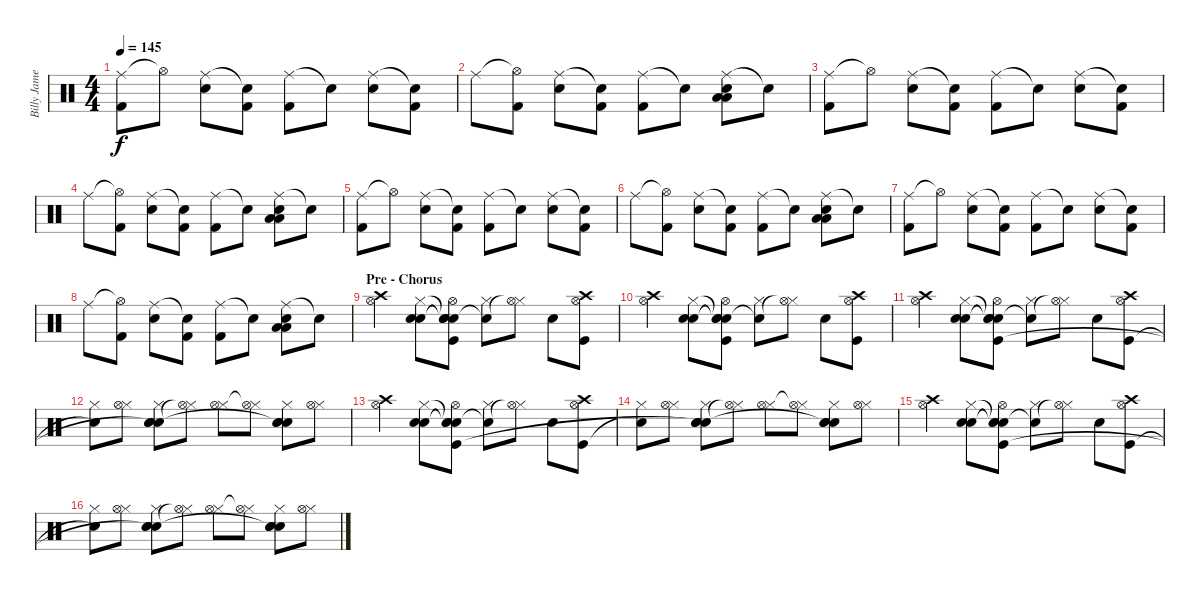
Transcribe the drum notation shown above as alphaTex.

\track ("Billy James (Drums)" "Billy Jame") {instrument percussion}
\staff {score}
\articulation defaults
\ts (4 4)
\tempo 145
\clef neutral
\ks c
("Ride (middle)" "Kick (hit) 2").8{dy f} "Hi-Hat (open)"{t}.8 ("Ride (middle)" "Snare (hit) 2").8 ("Snare (hit)"{t} "Kick (hit) 2").8 ("Ride (middle)" "Kick (hit) 2").8 "Snare (hit)"{t}.8 ("Ride (middle)" "Snare (hit) 2").8 ("Snare (hit)"{t} "Kick (hit) 2").8 |
"Ride (middle)".8 ("Hi-Hat (open)"{t} "Kick (hit) 2").8 ("Ride (middle)" "Snare (hit) 2").8 ("Snare (hit)"{t} "Kick (hit) 2").8 ("Ride (middle)" "Kick (hit) 2").8 "Snare (hit)"{t}.8 ("Ride (middle)" "Low Floor Tom (hit)" "Low Floor Tom (hit)" "Snare (hit) 2").8 "Snare (hit)"{t}.8 |
("Ride (middle)" "Kick (hit) 2").8 "Hi-Hat (open)"{t}.8 ("Ride (middle)" "Snare (hit) 2").8 ("Snare (hit)"{t} "Kick (hit) 2").8 ("Ride (middle)" "Kick (hit) 2").8 "Snare (hit)"{t}.8 ("Ride (middle)" "Snare (hit) 2").8 ("Snare (hit)"{t} "Kick (hit) 2").8 |
"Ride (middle)".8 ("Hi-Hat (open)"{t} "Kick (hit) 2").8 ("Ride (middle)" "Snare (hit) 2").8 ("Snare (hit)"{t} "Kick (hit) 2").8 ("Ride (middle)" "Kick (hit) 2").8 "Snare (hit)"{t}.8 ("Ride (middle)" "Low Floor Tom (hit)" "Low Floor Tom (hit)" "Snare (hit) 2").8 "Snare (hit)"{t}.8 |
("Ride (middle)" "Kick (hit) 2").8 "Hi-Hat (open)"{t}.8 ("Ride (middle)" "Snare (hit) 2").8 ("Snare (hit)"{t} "Kick (hit) 2").8 ("Ride (middle)" "Kick (hit) 2").8 "Snare (hit)"{t}.8 ("Ride (middle)" "Snare (hit) 2").8 ("Snare (hit)"{t} "Kick (hit) 2").8 |
"Ride (middle)".8 ("Hi-Hat (open)"{t} "Kick (hit) 2").8 ("Ride (middle)" "Snare (hit) 2").8 ("Snare (hit)"{t} "Kick (hit) 2").8 ("Ride (middle)" "Kick (hit) 2").8 "Snare (hit)"{t}.8 ("Ride (middle)" "Low Floor Tom (hit)" "Low Floor Tom (hit)" "Snare (hit) 2").8 "Snare (hit)"{t}.8 |
("Ride (middle)" "Kick (hit) 2").8 "Hi-Hat (open)"{t}.8 ("Ride (middle)" "Snare (hit) 2").8 ("Snare (hit)"{t} "Kick (hit) 2").8 ("Ride (middle)" "Kick (hit) 2").8 "Snare (hit)"{t}.8 ("Ride (middle)" "Snare (hit) 2").8 ("Snare (hit)"{t} "Kick (hit) 2").8 |
"Ride (middle)".8 ("Hi-Hat (open)"{t} "Kick (hit) 2").8 ("Ride (middle)" "Snare (hit) 2").8 ("Snare (hit)"{t} "Kick (hit) 2").8 ("Ride (middle)" "Kick (hit) 2").8 "Snare (hit)"{t}.8 ("Ride (middle)" "Low Floor Tom (hit)" "Low Floor Tom (hit)" "Snare (hit) 2").8 "Snare (hit)"{t}.8 |
\section ("" "Pre - Chorus")
("Hi-Hat (open)" "Crash high (hit)").4{volume 14} ("Snare (hit) 2" "Snare (hit) 2" "Hi-Hat (closed)").8 ("Snare (hit)"{t} "Snare (hit)"{t} "Snare (hit)"{t} "Kick (hit)" "Hi-Hat (open)").8 ("Hi-Hat (closed)" "Snare (hit)"{t}).8 ("Hi-Hat (closed)" "Hi-Hat (open)"{t}).8 "Snare (hit) 2".8 ("Crash high (hit)" "Kick (hit)" "Hi-Hat (open)").8 |
("Hi-Hat (open)" "Crash high (hit)").4{volume 14} ("Snare (hit) 2" "Snare (hit) 2" "Hi-Hat (closed)").8 ("Snare (hit)"{t} "Snare (hit)"{t} "Snare (hit)"{t} "Kick (hit)" "Hi-Hat (open)").8 ("Hi-Hat (closed)" "Snare (hit)"{t}).8 ("Hi-Hat (closed)" "Hi-Hat (open)"{t}).8 "Snare (hit) 2".8 ("Crash high (hit)" "Kick (hit)" "Hi-Hat (open)").8 |
("Hi-Hat (open)" "Crash high (hit)").4{volume 14} ("Snare (hit) 2" "Snare (hit) 2" "Hi-Hat (closed)").8 ("Snare (hit)"{t} "Snare (hit)"{t} "Snare (hit)"{t} "Kick (hit)" "Hi-Hat (open)").8 ("Hi-Hat (closed)" "Snare (hit)"{t}).8 ("Hi-Hat (closed)" "Hi-Hat (open)"{t}).8 "Snare (hit) 2".8 ("Crash high (hit)" "Kick (hit)" "Hi-Hat (open)").8 |
("Hi-Hat (closed)" "Snare (hit)"{t}).8 ("Hi-Hat (closed)" "Hi-Hat (open)").8 ("Hi-Hat (closed)" "Snare (hit) 2" "Snare (hit) 2" "Snare (hit)"{t}).8 ("Hi-Hat (closed)" "Hi-Hat (open)"{t}).8 ("Hi-Hat (closed)" "Hi-Hat (open)").8 ("Hi-Hat (closed)" "Hi-Hat (open)"{t}).8 ("Hi-Hat (closed)" "Snare (hit) 2" "Snare (hit) 2" "Snare (hit)"{t}).8 ("Hi-Hat (closed)" "Hi-Hat (open)").8 |
("Hi-Hat (open)" "Crash high (hit)").4{volume 14} ("Snare (hit) 2" "Snare (hit) 2" "Hi-Hat (closed)").8 ("Snare (hit)"{t} "Snare (hit)"{t} "Snare (hit)"{t} "Kick (hit)" "Hi-Hat (open)").8 ("Hi-Hat (closed)" "Snare (hit)"{t}).8 ("Hi-Hat (closed)" "Hi-Hat (open)"{t}).8 "Snare (hit) 2".8 ("Crash high (hit)" "Kick (hit)" "Hi-Hat (open)").8 |
("Hi-Hat (closed)" "Snare (hit)"{t}).8 ("Hi-Hat (closed)" "Hi-Hat (open)").8 ("Hi-Hat (closed)" "Snare (hit) 2" "Snare (hit) 2" "Snare (hit)"{t}).8 ("Hi-Hat (closed)" "Hi-Hat (open)"{t}).8 ("Hi-Hat (closed)" "Hi-Hat (open)").8 ("Hi-Hat (closed)" "Hi-Hat (open)"{t}).8 ("Hi-Hat (closed)" "Snare (hit) 2" "Snare (hit) 2" "Snare (hit)"{t}).8 ("Hi-Hat (closed)" "Hi-Hat (open)").8 |
("Hi-Hat (open)" "Crash high (hit)").4{volume 14} ("Snare (hit) 2" "Snare (hit) 2" "Hi-Hat (closed)").8 ("Snare (hit)"{t} "Snare (hit)"{t} "Snare (hit)"{t} "Kick (hit)" "Hi-Hat (open)").8 ("Hi-Hat (closed)" "Snare (hit)"{t}).8 ("Hi-Hat (closed)" "Hi-Hat (open)"{t}).8 "Snare (hit) 2".8 ("Crash high (hit)" "Kick (hit)" "Hi-Hat (open)").8 |
("Hi-Hat (closed)" "Snare (hit)"{t}).8 ("Hi-Hat (closed)" "Hi-Hat (open)").8 ("Hi-Hat (closed)" "Snare (hit) 2" "Snare (hit) 2" "Snare (hit)"{t}).8 ("Hi-Hat (closed)" "Hi-Hat (open)"{t}).8 ("Hi-Hat (closed)" "Hi-Hat (open)").8 ("Hi-Hat (closed)" "Hi-Hat (open)"{t}).8 ("Hi-Hat (closed)" "Snare (hit) 2" "Snare (hit) 2" "Snare (hit)"{t}).8 ("Hi-Hat (closed)" "Hi-Hat (open)").8
